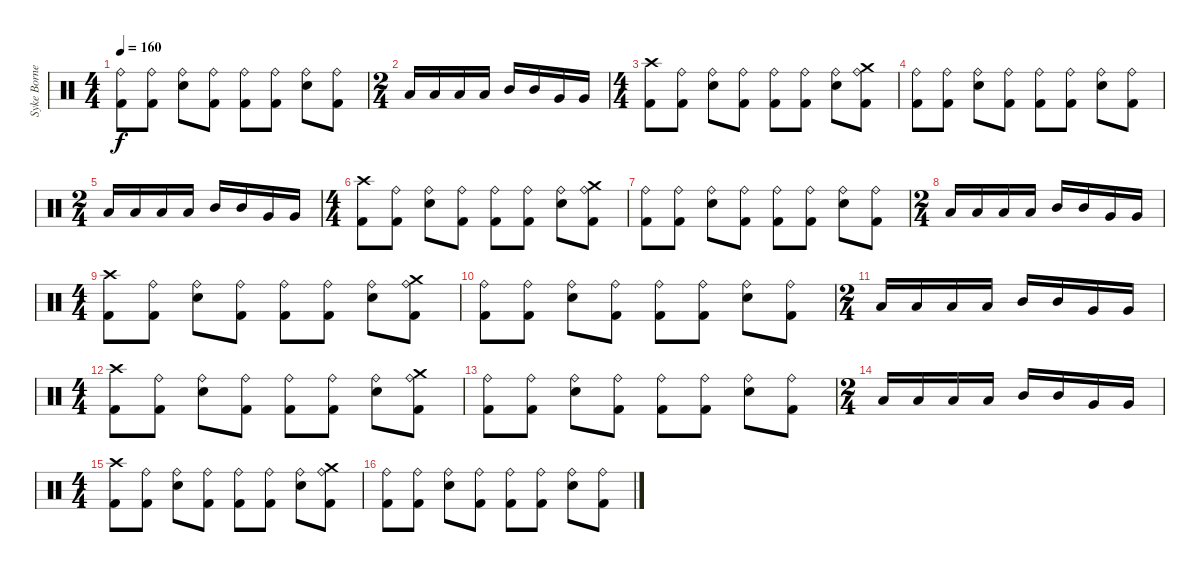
\track ("Syke Bornetto (Drums)" "Syke Borne") {instrument percussion}
\staff {score}
\articulation defaults
\ts (4 4)
\tempo 160
\clef neutral
\ks c
("Kick (hit) 2" "Ride (bell)").8{dy f} ("Kick (hit) 2" "Ride (bell)").8 ("Electric Snare (hit)" "Ride (bell)").8 ("Kick (hit) 2" "Ride (bell)").8 ("Kick (hit) 2" "Ride (bell)").8 ("Kick (hit) 2" "Ride (bell)").8 ("Electric Snare (hit)" "Ride (bell)").8 ("Kick (hit) 2" "Ride (bell)").8 |
\ts (2 4)
"Low Floor Tom (hit)".16 "Low Floor Tom (hit)".16 "Low Tom (hit)".16 "Low Tom (hit)".16 "Mid Tom (hit)".16 "Mid Tom (hit)".16 "Very Low Tom (hit)".16 "Very Low Tom (hit)".16 |
\ts (4 4)
("Kick (hit) 2" "Crash high (hit)").8 ("Kick (hit) 2" "Ride (bell)").8 ("Electric Snare (hit)" "Ride (bell)").8 ("Kick (hit) 2" "Ride (bell)").8 ("Kick (hit) 2" "Ride (bell)").8 ("Kick (hit) 2" "Ride (bell)").8 ("Electric Snare (hit)" "Ride (bell)").8 ("Kick (hit) 2" "Crash medium (hit)" "Ride (bell)").8 |
("Kick (hit) 2" "Ride (bell)").8 ("Kick (hit) 2" "Ride (bell)").8 ("Electric Snare (hit)" "Ride (bell)").8 ("Kick (hit) 2" "Ride (bell)").8 ("Kick (hit) 2" "Ride (bell)").8 ("Kick (hit) 2" "Ride (bell)").8 ("Electric Snare (hit)" "Ride (bell)").8 ("Kick (hit) 2" "Ride (bell)").8 |
\ts (2 4)
"Low Floor Tom (hit)".16 "Low Floor Tom (hit)".16 "Low Tom (hit)".16 "Low Tom (hit)".16 "Mid Tom (hit)".16 "Mid Tom (hit)".16 "Very Low Tom (hit)".16 "Very Low Tom (hit)".16 |
\ts (4 4)
("Kick (hit) 2" "Crash high (hit)").8 ("Kick (hit) 2" "Ride (bell)").8 ("Electric Snare (hit)" "Ride (bell)").8 ("Kick (hit) 2" "Ride (bell)").8 ("Kick (hit) 2" "Ride (bell)").8 ("Kick (hit) 2" "Ride (bell)").8 ("Electric Snare (hit)" "Ride (bell)").8 ("Kick (hit) 2" "Crash medium (hit)" "Ride (bell)").8 |
("Kick (hit) 2" "Ride (bell)").8 ("Kick (hit) 2" "Ride (bell)").8 ("Electric Snare (hit)" "Ride (bell)").8 ("Kick (hit) 2" "Ride (bell)").8 ("Kick (hit) 2" "Ride (bell)").8 ("Kick (hit) 2" "Ride (bell)").8 ("Electric Snare (hit)" "Ride (bell)").8 ("Kick (hit) 2" "Ride (bell)").8 |
\ts (2 4)
"Low Floor Tom (hit)".16 "Low Floor Tom (hit)".16 "Low Tom (hit)".16 "Low Tom (hit)".16 "Mid Tom (hit)".16 "Mid Tom (hit)".16 "Very Low Tom (hit)".16 "Very Low Tom (hit)".16 |
\ts (4 4)
("Kick (hit) 2" "Crash high (hit)").8 ("Kick (hit) 2" "Ride (bell)").8 ("Electric Snare (hit)" "Ride (bell)").8 ("Kick (hit) 2" "Ride (bell)").8 ("Kick (hit) 2" "Ride (bell)").8 ("Kick (hit) 2" "Ride (bell)").8 ("Electric Snare (hit)" "Ride (bell)").8 ("Kick (hit) 2" "Crash medium (hit)" "Ride (bell)").8 |
("Kick (hit) 2" "Ride (bell)").8 ("Kick (hit) 2" "Ride (bell)").8 ("Electric Snare (hit)" "Ride (bell)").8 ("Kick (hit) 2" "Ride (bell)").8 ("Kick (hit) 2" "Ride (bell)").8 ("Kick (hit) 2" "Ride (bell)").8 ("Electric Snare (hit)" "Ride (bell)").8 ("Kick (hit) 2" "Ride (bell)").8 |
\ts (2 4)
"Low Floor Tom (hit)".16 "Low Floor Tom (hit)".16 "Low Tom (hit)".16 "Low Tom (hit)".16 "Mid Tom (hit)".16 "Mid Tom (hit)".16 "Very Low Tom (hit)".16 "Very Low Tom (hit)".16 |
\ts (4 4)
("Kick (hit) 2" "Crash high (hit)").8 ("Kick (hit) 2" "Ride (bell)").8 ("Electric Snare (hit)" "Ride (bell)").8 ("Kick (hit) 2" "Ride (bell)").8 ("Kick (hit) 2" "Ride (bell)").8 ("Kick (hit) 2" "Ride (bell)").8 ("Electric Snare (hit)" "Ride (bell)").8 ("Kick (hit) 2" "Crash medium (hit)" "Ride (bell)").8 |
("Kick (hit) 2" "Ride (bell)").8 ("Kick (hit) 2" "Ride (bell)").8 ("Electric Snare (hit)" "Ride (bell)").8 ("Kick (hit) 2" "Ride (bell)").8 ("Kick (hit) 2" "Ride (bell)").8 ("Kick (hit) 2" "Ride (bell)").8 ("Electric Snare (hit)" "Ride (bell)").8 ("Kick (hit) 2" "Ride (bell)").8 |
\ts (2 4)
"Low Floor Tom (hit)".16 "Low Floor Tom (hit)".16 "Low Tom (hit)".16 "Low Tom (hit)".16 "Mid Tom (hit)".16 "Mid Tom (hit)".16 "Very Low Tom (hit)".16 "Very Low Tom (hit)".16 |
\ts (4 4)
("Kick (hit) 2" "Crash high (hit)").8 ("Kick (hit) 2" "Ride (bell)").8 ("Electric Snare (hit)" "Ride (bell)").8 ("Kick (hit) 2" "Ride (bell)").8 ("Kick (hit) 2" "Ride (bell)").8 ("Kick (hit) 2" "Ride (bell)").8 ("Electric Snare (hit)" "Ride (bell)").8 ("Kick (hit) 2" "Crash medium (hit)" "Ride (bell)").8 |
("Kick (hit) 2" "Ride (bell)").8 ("Kick (hit) 2" "Ride (bell)").8 ("Electric Snare (hit)" "Ride (bell)").8 ("Kick (hit) 2" "Ride (bell)").8 ("Kick (hit) 2" "Ride (bell)").8 ("Kick (hit) 2" "Ride (bell)").8 ("Electric Snare (hit)" "Ride (bell)").8 ("Kick (hit) 2" "Ride (bell)").8
